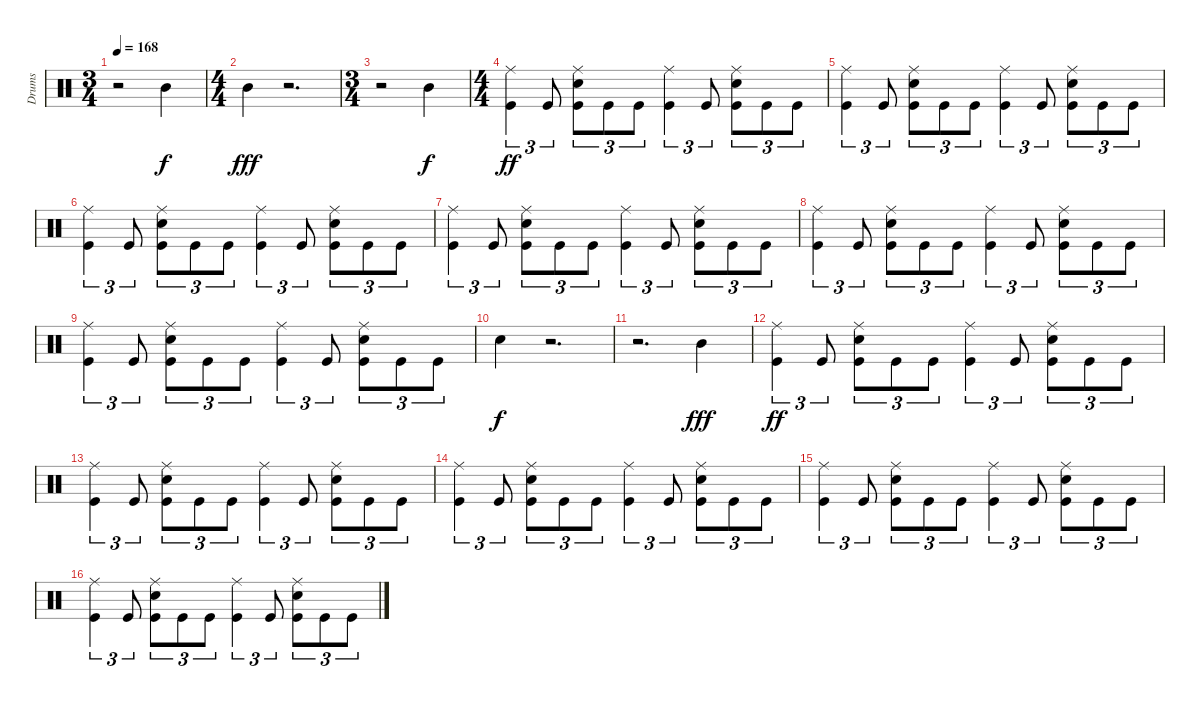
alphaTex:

\track ("Drums" "Drums") {instrument percussion}
\staff {score}
\articulation defaults
\ts (3 4)
\tempo 168
\clef neutral
\ks c
r.2{dy fff} "Mid Tom (hit)".4{dy f} |
\ts (4 4)
"Mid Tom (hit)".4{dy fff} r.2{d} |
\ts (3 4)
r.2 "Mid Tom (hit)".4{dy f} |
\ts (4 4)
("Ride (middle)" "Kick (hit)").4{tu (3 2) dy ff} "Kick (hit)".8{tu (3 2)} ("Ride (middle)" "Electric Snare (hit)" "Kick (hit)").8{tu (3 2)} "Kick (hit)".8{tu (3 2)} "Kick (hit)".8{tu (3 2)} ("Ride (middle)" "Kick (hit)").4{tu (3 2)} "Kick (hit)".8{tu (3 2)} ("Ride (middle)" "Electric Snare (hit)" "Kick (hit)").8{tu (3 2)} "Kick (hit)".8{tu (3 2)} "Kick (hit)".8{tu (3 2)} |
("Ride (middle)" "Kick (hit)").4{tu (3 2)} "Kick (hit)".8{tu (3 2)} ("Ride (middle)" "Electric Snare (hit)" "Kick (hit)").8{tu (3 2)} "Kick (hit)".8{tu (3 2)} "Kick (hit)".8{tu (3 2)} ("Ride (middle)" "Kick (hit)").4{tu (3 2)} "Kick (hit)".8{tu (3 2)} ("Ride (middle)" "Electric Snare (hit)" "Kick (hit)").8{tu (3 2)} "Kick (hit)".8{tu (3 2)} "Kick (hit)".8{tu (3 2)} |
("Ride (middle)" "Kick (hit)").4{tu (3 2)} "Kick (hit)".8{tu (3 2)} ("Ride (middle)" "Electric Snare (hit)" "Kick (hit)").8{tu (3 2)} "Kick (hit)".8{tu (3 2)} "Kick (hit)".8{tu (3 2)} ("Ride (middle)" "Kick (hit)").4{tu (3 2)} "Kick (hit)".8{tu (3 2)} ("Ride (middle)" "Electric Snare (hit)" "Kick (hit)").8{tu (3 2)} "Kick (hit)".8{tu (3 2)} "Kick (hit)".8{tu (3 2)} |
("Ride (middle)" "Kick (hit)").4{tu (3 2)} "Kick (hit)".8{tu (3 2)} ("Ride (middle)" "Electric Snare (hit)" "Kick (hit)").8{tu (3 2)} "Kick (hit)".8{tu (3 2)} "Kick (hit)".8{tu (3 2)} ("Ride (middle)" "Kick (hit)").4{tu (3 2)} "Kick (hit)".8{tu (3 2)} ("Ride (middle)" "Electric Snare (hit)" "Kick (hit)").8{tu (3 2)} "Kick (hit)".8{tu (3 2)} "Kick (hit)".8{tu (3 2)} |
("Ride (middle)" "Kick (hit)").4{tu (3 2)} "Kick (hit)".8{tu (3 2)} ("Ride (middle)" "Electric Snare (hit)" "Kick (hit)").8{tu (3 2)} "Kick (hit)".8{tu (3 2)} "Kick (hit)".8{tu (3 2)} ("Ride (middle)" "Kick (hit)").4{tu (3 2)} "Kick (hit)".8{tu (3 2)} ("Ride (middle)" "Electric Snare (hit)" "Kick (hit)").8{tu (3 2)} "Kick (hit)".8{tu (3 2)} "Kick (hit)".8{tu (3 2)} |
("Ride (middle)" "Kick (hit)").4{tu (3 2)} "Kick (hit)".8{tu (3 2)} ("Ride (middle)" "Electric Snare (hit)" "Kick (hit)").8{tu (3 2)} "Kick (hit)".8{tu (3 2)} "Kick (hit)".8{tu (3 2)} ("Ride (middle)" "Kick (hit)").4{tu (3 2)} "Kick (hit)".8{tu (3 2)} ("Ride (middle)" "Electric Snare (hit)" "Kick (hit)").8{tu (3 2)} "Kick (hit)".8{tu (3 2)} "Kick (hit)".8{tu (3 2)} |
"Electric Snare (hit)".4{dy f} r.2{d} |
r.2{d} "Mid Tom (hit)".4{dy fff} |
("Ride (middle)" "Kick (hit)").4{tu (3 2) dy ff} "Kick (hit)".8{tu (3 2)} ("Ride (middle)" "Electric Snare (hit)" "Kick (hit)").8{tu (3 2)} "Kick (hit)".8{tu (3 2)} "Kick (hit)".8{tu (3 2)} ("Ride (middle)" "Kick (hit)").4{tu (3 2)} "Kick (hit)".8{tu (3 2)} ("Ride (middle)" "Electric Snare (hit)" "Kick (hit)").8{tu (3 2)} "Kick (hit)".8{tu (3 2)} "Kick (hit)".8{tu (3 2)} |
("Ride (middle)" "Kick (hit)").4{tu (3 2)} "Kick (hit)".8{tu (3 2)} ("Ride (middle)" "Electric Snare (hit)" "Kick (hit)").8{tu (3 2)} "Kick (hit)".8{tu (3 2)} "Kick (hit)".8{tu (3 2)} ("Ride (middle)" "Kick (hit)").4{tu (3 2)} "Kick (hit)".8{tu (3 2)} ("Ride (middle)" "Electric Snare (hit)" "Kick (hit)").8{tu (3 2)} "Kick (hit)".8{tu (3 2)} "Kick (hit)".8{tu (3 2)} |
("Ride (middle)" "Kick (hit)").4{tu (3 2)} "Kick (hit)".8{tu (3 2)} ("Ride (middle)" "Electric Snare (hit)" "Kick (hit)").8{tu (3 2)} "Kick (hit)".8{tu (3 2)} "Kick (hit)".8{tu (3 2)} ("Ride (middle)" "Kick (hit)").4{tu (3 2)} "Kick (hit)".8{tu (3 2)} ("Ride (middle)" "Electric Snare (hit)" "Kick (hit)").8{tu (3 2)} "Kick (hit)".8{tu (3 2)} "Kick (hit)".8{tu (3 2)} |
("Ride (middle)" "Kick (hit)").4{tu (3 2)} "Kick (hit)".8{tu (3 2)} ("Ride (middle)" "Electric Snare (hit)" "Kick (hit)").8{tu (3 2)} "Kick (hit)".8{tu (3 2)} "Kick (hit)".8{tu (3 2)} ("Ride (middle)" "Kick (hit)").4{tu (3 2)} "Kick (hit)".8{tu (3 2)} ("Ride (middle)" "Electric Snare (hit)" "Kick (hit)").8{tu (3 2)} "Kick (hit)".8{tu (3 2)} "Kick (hit)".8{tu (3 2)} |
("Ride (middle)" "Kick (hit)").4{tu (3 2)} "Kick (hit)".8{tu (3 2)} ("Ride (middle)" "Electric Snare (hit)" "Kick (hit)").8{tu (3 2)} "Kick (hit)".8{tu (3 2)} "Kick (hit)".8{tu (3 2)} ("Ride (middle)" "Kick (hit)").4{tu (3 2)} "Kick (hit)".8{tu (3 2)} ("Ride (middle)" "Electric Snare (hit)" "Kick (hit)").8{tu (3 2)} "Kick (hit)".8{tu (3 2)} "Kick (hit)".8{tu (3 2)}
